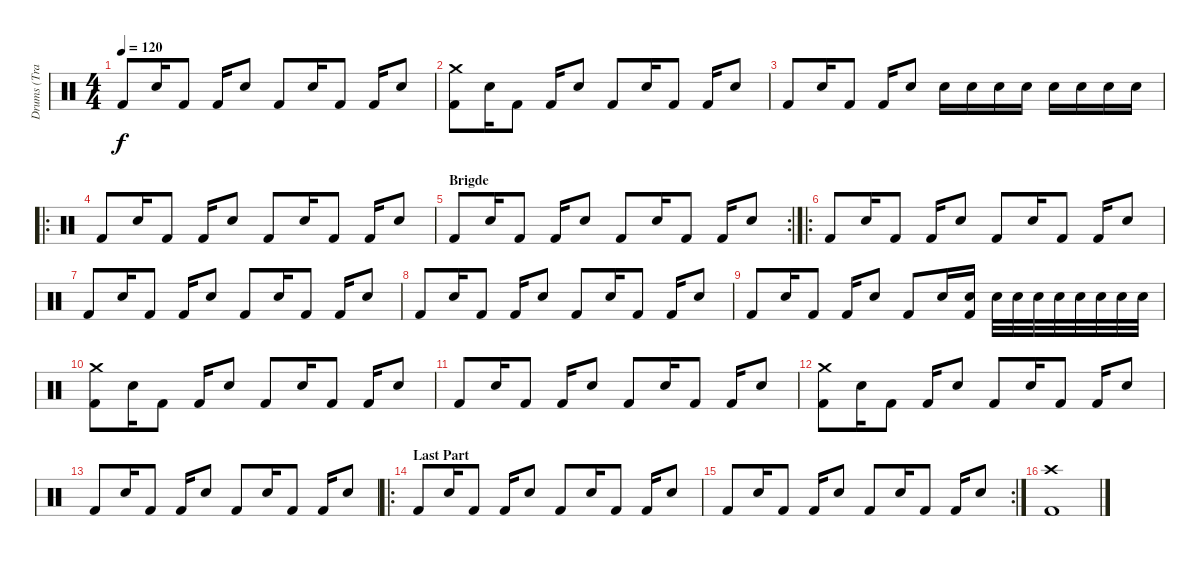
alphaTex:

\track ("Drums (Travis Barker)" "Drums (Tra") {instrument percussion}
\staff {score}
\articulation defaults
\ts (4 4)
\tempo 120
\clef neutral
\ks c "Kick (hit) 2".8{dy f} "Snare (hit) 2".16 "Kick (hit) 2".8 "Kick (hit) 2".16 "Snare (hit) 2".8 "Kick (hit) 2".8 "Snare (hit) 2".16 "Kick (hit) 2".8 "Kick (hit) 2".16 "Snare (hit) 2".8
|
("Crash medium (hit)" "Kick (hit) 2").8 "Snare (hit) 2".16 "Kick (hit) 2".8 "Kick (hit) 2".16 "Snare (hit) 2".8 "Kick (hit) 2".8 "Snare (hit) 2".16 "Kick (hit) 2".8 "Kick (hit) 2".16 "Snare (hit) 2".8 |
"Kick (hit) 2".8 "Snare (hit) 2".16 "Kick (hit) 2".8 "Kick (hit) 2".16 "Snare (hit) 2".8 "Electric Snare (hit)".16 "Electric Snare (hit)".16 "Electric Snare (hit)".16 "Electric Snare (hit)".16 "Electric Snare (hit)".16 "Electric Snare (hit)".16 "Electric Snare (hit)".16 "Electric Snare (hit)".16 |
\ro "Kick (hit) 2".8 "Snare (hit) 2".16 "Kick (hit) 2".8 "Kick (hit) 2".16 "Snare (hit) 2".8 "Kick (hit) 2".8 "Snare (hit) 2".16 "Kick (hit) 2".8 "Kick (hit) 2".16 "Snare (hit) 2".8
|
\rc 2
\section ("" "Brigde")
"Kick (hit) 2".8 "Snare (hit) 2".16 "Kick (hit) 2".8 "Kick (hit) 2".16 "Snare (hit) 2".8 "Kick (hit) 2".8 "Snare (hit) 2".16 "Kick (hit) 2".8 "Kick (hit) 2".16 "Snare (hit) 2".8 |
\ro "Kick (hit) 2".8 "Snare (hit) 2".16 "Kick (hit) 2".8 "Kick (hit) 2".16 "Snare (hit) 2".8 "Kick (hit) 2".8 "Snare (hit) 2".16 "Kick (hit) 2".8 "Kick (hit) 2".16 "Snare (hit) 2".8
|
"Kick (hit) 2".8 "Snare (hit) 2".16 "Kick (hit) 2".8 "Kick (hit) 2".16 "Snare (hit) 2".8 "Kick (hit) 2".8 "Snare (hit) 2".16 "Kick (hit) 2".8 "Kick (hit) 2".16 "Snare (hit) 2".8 |
"Kick (hit) 2".8 "Snare (hit) 2".16 "Kick (hit) 2".8 "Kick (hit) 2".16 "Snare (hit) 2".8 "Kick (hit) 2".8 "Snare (hit) 2".16 "Kick (hit) 2".8 "Kick (hit) 2".16 "Snare (hit) 2".8 |
"Kick (hit) 2".8 "Snare (hit) 2".16 "Kick (hit) 2".8 "Kick (hit) 2".16 "Snare (hit) 2".8 "Kick (hit) 2".8 "Snare (hit) 2".16 ("Snare (hit)" "Kick (hit) 2").16 "Snare (hit) 2".32 "Snare (hit) 2".32 "Snare (hit) 2".32 "Snare (hit) 2".32 "Snare (hit) 2".32 "Snare (hit) 2".32 "Snare (hit) 2".32 "Snare (hit) 2".32 |
("Crash medium (hit)" "Kick (hit) 2").8 "Snare (hit) 2".16 "Kick (hit) 2".8 "Kick (hit) 2".16 "Snare (hit) 2".8 "Kick (hit) 2".8 "Snare (hit) 2".16 "Kick (hit) 2".8 "Kick (hit) 2".16 "Snare (hit) 2".8 |
"Kick (hit) 2".8 "Snare (hit) 2".16 "Kick (hit) 2".8 "Kick (hit) 2".16 "Snare (hit) 2".8 "Kick (hit) 2".8 "Snare (hit) 2".16 "Kick (hit) 2".8 "Kick (hit) 2".16 "Snare (hit) 2".8 |
("Crash medium (hit)" "Kick (hit) 2").8 "Snare (hit) 2".16 "Kick (hit) 2".8 "Kick (hit) 2".16 "Snare (hit) 2".8 "Kick (hit) 2".8 "Snare (hit) 2".16 "Kick (hit) 2".8 "Kick (hit) 2".16 "Snare (hit) 2".8 |
"Kick (hit) 2".8 "Snare (hit) 2".16 "Kick (hit) 2".8 "Kick (hit) 2".16 "Snare (hit) 2".8 "Kick (hit) 2".8 "Snare (hit) 2".16 "Kick (hit) 2".8 "Kick (hit) 2".16 "Snare (hit) 2".8 |
\ro
\section ("" "Last Part")
"Kick (hit) 2".8 "Snare (hit) 2".16 "Kick (hit) 2".8 "Kick (hit) 2".16 "Snare (hit) 2".8 "Kick (hit) 2".8 "Snare (hit) 2".16 "Kick (hit) 2".8 "Kick (hit) 2".16 "Snare (hit) 2".8 |
\rc 2 "Kick (hit) 2".8 "Snare (hit) 2".16 "Kick (hit) 2".8 "Kick (hit) 2".16 "Snare (hit) 2".8 "Kick (hit) 2".8 "Snare (hit) 2".16 "Kick (hit) 2".8 "Kick (hit) 2".16 "Snare (hit) 2".8
|
("Crash high (hit)" "Kick (hit) 2").1
